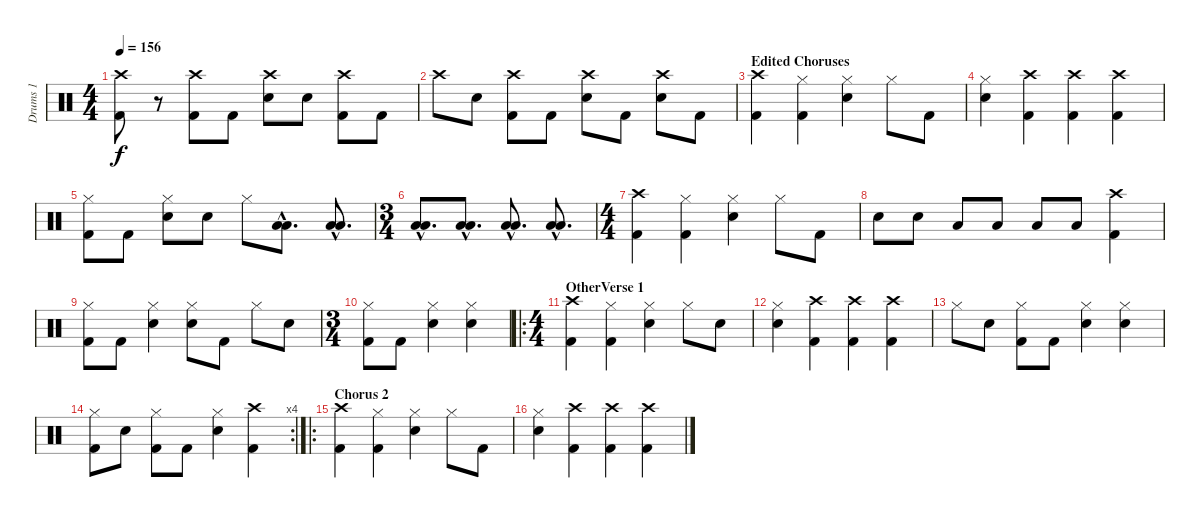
\track ("Drums 1" "Drums 1") {instrument percussion}
\staff {score}
\articulation defaults
\ts (4 4)
\tempo 156
\clef neutral
\ks c
("Crash high (hit)" "Kick (hit) 2").8{dy f} r.8 ("Crash high (hit)" "Kick (hit) 2").8 "Kick (hit) 2".8 ("Crash high (hit)" "Snare (hit) 2").8 "Snare (hit) 2".8 ("Crash high (hit)" "Kick (hit) 2").8 "Kick (hit) 2".8 |
"Crash high (hit)".8 "Snare (hit) 2".8 ("Crash high (hit)" "Kick (hit) 2").8 "Kick (hit) 2".8 ("Crash high (hit)" "Snare (hit) 2").8 "Kick (hit) 2".8 ("Crash high (hit)" "Snare (hit) 2").8 "Kick (hit) 2".8 |
\section ("" "Edited Choruses")
("Crash high (hit)" "Kick (hit) 2").4 ("Hi-Hat (closed)" "Kick (hit) 2").4 ("Hi-Hat (closed)" "Snare (hit) 2").4 "Hi-Hat (closed)".8 "Kick (hit) 2".8 |
("Hi-Hat (closed)" "Snare (hit) 2").4 ("Crash high (hit)" "Kick (hit) 2").4 ("Crash high (hit)" "Kick (hit) 2").4 ("Crash high (hit)" "Kick (hit) 2").4 |
("Hi-Hat (closed)" "Kick (hit) 2").8 "Kick (hit) 2".8 ("Hi-Hat (closed)" "Snare (hit) 2").8 "Snare (hit) 2".8 "Hi-Hat (closed)".8 ("Low Tom (hit)"{hac} "Low Floor Tom (hit)"{hac}).8{d} ("Low Tom (hit)"{hac} "Low Floor Tom (hit)"{hac}).8{d} |
\ts (3 4)
("Low Tom (hit)"{hac} "Low Floor Tom (hit)"{hac}).8{d} ("Low Tom (hit)"{hac} "Low Floor Tom (hit)"{hac}).8{d} ("Low Tom (hit)"{hac} "Low Floor Tom (hit)"{hac}).8{d} ("Low Tom (hit)"{hac} "Low Floor Tom (hit)"{hac}).8{d} |
\ts (4 4)
("Crash high (hit)" "Kick (hit) 2").4 ("Hi-Hat (closed)" "Kick (hit) 2").4 ("Hi-Hat (closed)" "Snare (hit) 2").4 "Hi-Hat (closed)".8 "Kick (hit) 2".8 |
"Snare (hit) 2".8 "Snare (hit) 2".8 "Low Tom (hit)".8 "Low Tom (hit)".8 "Low Floor Tom (hit)".8 "Low Floor Tom (hit)".8 ("Crash high (hit)" "Kick (hit) 2").4 |
("Hi-Hat (closed)" "Kick (hit) 2").8 "Kick (hit) 2".8 ("Hi-Hat (closed)" "Snare (hit) 2").4 ("Hi-Hat (closed)" "Snare (hit) 2").8 "Kick (hit) 2".8 "Hi-Hat (closed)".8 "Snare (hit) 2".8 |
\ts (3 4)
("Hi-Hat (closed)" "Kick (hit) 2").8 "Kick (hit) 2".8 ("Hi-Hat (closed)" "Snare (hit) 2").4 ("Hi-Hat (closed)" "Snare (hit) 2").4 |
\ro
\ts (4 4)
\section ("" "OtherVerse 1")
("Crash high (hit)" "Kick (hit) 2").4 ("Hi-Hat (closed)" "Kick (hit) 2").4 ("Hi-Hat (closed)" "Snare (hit) 2").4 "Hi-Hat (closed)".8 "Snare (hit) 2".8 |
("Hi-Hat (closed)" "Snare (hit) 2").4 ("Crash high (hit)" "Kick (hit) 2").4 ("Crash high (hit)" "Kick (hit) 2").4 ("Crash high (hit)" "Kick (hit) 2").4 |
"Hi-Hat (closed)".8 "Snare (hit) 2".8 ("Hi-Hat (closed)" "Kick (hit) 2").8 "Kick (hit) 2".8 ("Hi-Hat (closed)" "Snare (hit) 2").4 ("Hi-Hat (closed)" "Snare (hit) 2").4 |
\rc 4
("Hi-Hat (closed)" "Kick (hit) 2").8 "Snare (hit) 2".8 ("Hi-Hat (closed)" "Kick (hit) 2").8 "Kick (hit) 2".8 ("Hi-Hat (closed)" "Snare (hit) 2").4 ("Crash high (hit)" "Kick (hit) 2").4 |
\ro
\section ("" "Chorus 2")
("Crash high (hit)" "Kick (hit) 2").4 ("Hi-Hat (closed)" "Kick (hit) 2").4 ("Hi-Hat (closed)" "Snare (hit) 2").4 "Hi-Hat (closed)".8 "Kick (hit) 2".8 |
("Hi-Hat (closed)" "Snare (hit) 2").4 ("Crash high (hit)" "Kick (hit) 2").4 ("Crash high (hit)" "Kick (hit) 2").4 ("Crash high (hit)" "Kick (hit) 2").4
